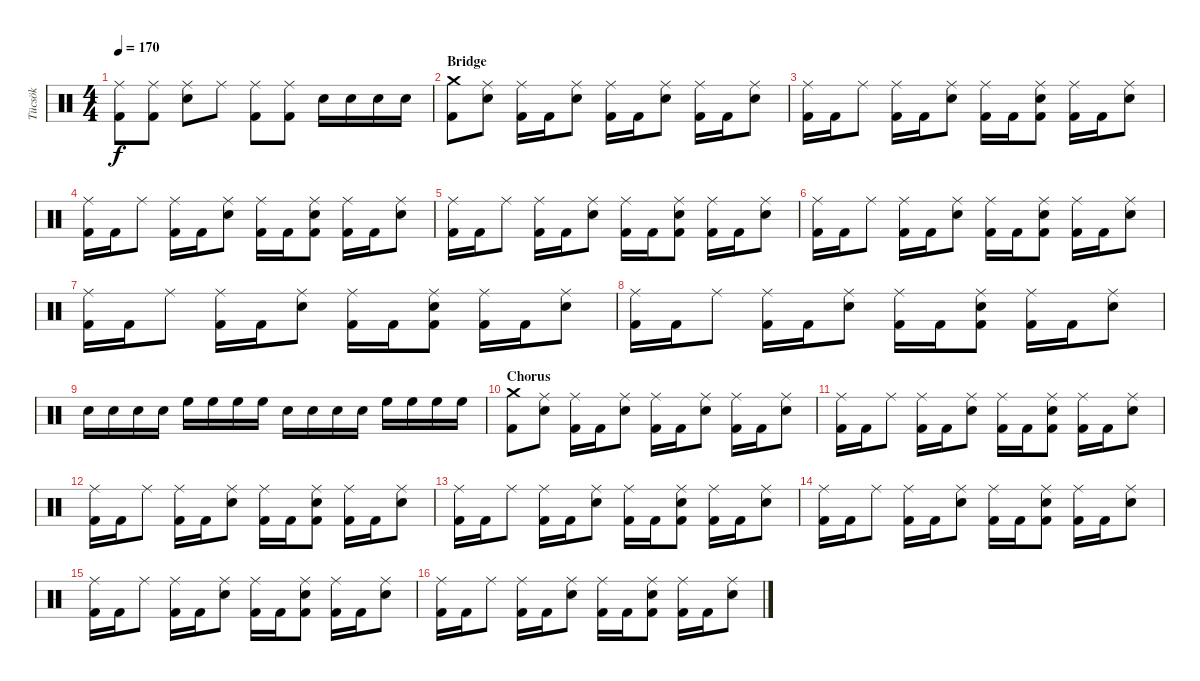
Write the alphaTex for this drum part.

\track ("Tücsök" "Tücsök") {instrument percussion}
\staff {score}
\articulation defaults
\ts (4 4)
\tempo 170
\clef neutral
\ks c
("Ride (middle)" "Kick (hit) 2").8{dy f} ("Ride (middle)" "Kick (hit) 2").8 ("Ride (middle)" "Electric Snare (hit)").8 "Ride (middle)".8 ("Ride (middle)" "Kick (hit) 2").8 ("Ride (middle)" "Kick (hit) 2").8 "Electric Snare (hit)".16 "Electric Snare (hit)".16 "Electric Snare (hit)".16 "Electric Snare (hit)".16 |
\section ("" "Bridge")
("Crash medium (hit)" "Kick (hit) 2").8 ("Ride (middle)" "Electric Snare (hit)").8 ("Ride (middle)" "Kick (hit) 2").16 "Kick (hit) 2".16 ("Ride (middle)" "Electric Snare (hit)").8 ("Ride (middle)" "Kick (hit) 2").16 "Kick (hit) 2".16 ("Ride (middle)" "Electric Snare (hit)").8 ("Ride (middle)" "Kick (hit) 2").16 "Kick (hit) 2".16 ("Ride (middle)" "Electric Snare (hit)").8 |
("Ride (middle)" "Kick (hit) 2").16 "Kick (hit) 2".16 "Ride (middle)".8 ("Ride (middle)" "Kick (hit) 2").16 "Kick (hit) 2".16 ("Ride (middle)" "Electric Snare (hit)").8 ("Ride (middle)" "Kick (hit) 2").16 "Kick (hit) 2".16 ("Ride (middle)" "Electric Snare (hit)" "Kick (hit) 2").8 ("Ride (middle)" "Kick (hit) 2").16 "Kick (hit) 2".16 ("Ride (middle)" "Electric Snare (hit)").8 |
("Ride (middle)" "Kick (hit) 2").16 "Kick (hit) 2".16 "Ride (middle)".8 ("Ride (middle)" "Kick (hit) 2").16 "Kick (hit) 2".16 ("Ride (middle)" "Electric Snare (hit)").8 ("Ride (middle)" "Kick (hit) 2").16 "Kick (hit) 2".16 ("Ride (middle)" "Electric Snare (hit)" "Kick (hit) 2").8 ("Ride (middle)" "Kick (hit) 2").16 "Kick (hit) 2".16 ("Ride (middle)" "Electric Snare (hit)").8 |
("Ride (middle)" "Kick (hit) 2").16 "Kick (hit) 2".16 "Ride (middle)".8 ("Ride (middle)" "Kick (hit) 2").16 "Kick (hit) 2".16 ("Ride (middle)" "Electric Snare (hit)").8 ("Ride (middle)" "Kick (hit) 2").16 "Kick (hit) 2".16 ("Ride (middle)" "Electric Snare (hit)" "Kick (hit) 2").8 ("Ride (middle)" "Kick (hit) 2").16 "Kick (hit) 2".16 ("Ride (middle)" "Electric Snare (hit)").8 |
("Ride (middle)" "Kick (hit) 2").16 "Kick (hit) 2".16 "Ride (middle)".8 ("Ride (middle)" "Kick (hit) 2").16 "Kick (hit) 2".16 ("Ride (middle)" "Electric Snare (hit)").8 ("Ride (middle)" "Kick (hit) 2").16 "Kick (hit) 2".16 ("Ride (middle)" "Electric Snare (hit)" "Kick (hit) 2").8 ("Ride (middle)" "Kick (hit) 2").16 "Kick (hit) 2".16 ("Ride (middle)" "Electric Snare (hit)").8 |
("Ride (middle)" "Kick (hit) 2").16 "Kick (hit) 2".16 "Ride (middle)".8 ("Ride (middle)" "Kick (hit) 2").16 "Kick (hit) 2".16 ("Ride (middle)" "Electric Snare (hit)").8 ("Ride (middle)" "Kick (hit) 2").16 "Kick (hit) 2".16 ("Ride (middle)" "Electric Snare (hit)" "Kick (hit) 2").8 ("Ride (middle)" "Kick (hit) 2").16 "Kick (hit) 2".16 ("Ride (middle)" "Electric Snare (hit)").8 |
("Ride (middle)" "Kick (hit) 2").16 "Kick (hit) 2".16 "Ride (middle)".8 ("Ride (middle)" "Kick (hit) 2").16 "Kick (hit) 2".16 ("Ride (middle)" "Electric Snare (hit)").8 ("Ride (middle)" "Kick (hit) 2").16 "Kick (hit) 2".16 ("Ride (middle)" "Electric Snare (hit)" "Kick (hit) 2").8 ("Ride (middle)" "Kick (hit) 2").16 "Kick (hit) 2".16 ("Ride (middle)" "Electric Snare (hit)").8 |
"Electric Snare (hit)".16 "Electric Snare (hit)".16 "Electric Snare (hit)".16 "Electric Snare (hit)".16 "High Floor Tom (hit)".16 "High Floor Tom (hit)".16 "High Floor Tom (hit)".16 "High Floor Tom (hit)".16 "Electric Snare (hit)".16 "Electric Snare (hit)".16 "Electric Snare (hit)".16 "Electric Snare (hit)".16 "High Floor Tom (hit)".16 "High Floor Tom (hit)".16 "High Floor Tom (hit)".16 "High Floor Tom (hit)".16 |
\section ("" "Chorus")
("Crash medium (hit)" "Kick (hit) 2").8 ("Ride (middle)" "Electric Snare (hit)").8 ("Ride (middle)" "Kick (hit) 2").16 "Kick (hit) 2".16 ("Ride (middle)" "Electric Snare (hit)").8 ("Ride (middle)" "Kick (hit) 2").16 "Kick (hit) 2".16 ("Ride (middle)" "Electric Snare (hit)").8 ("Ride (middle)" "Kick (hit) 2").16 "Kick (hit) 2".16 ("Ride (middle)" "Electric Snare (hit)").8 |
("Ride (middle)" "Kick (hit) 2").16 "Kick (hit) 2".16 "Ride (middle)".8 ("Ride (middle)" "Kick (hit) 2").16 "Kick (hit) 2".16 ("Ride (middle)" "Electric Snare (hit)").8 ("Ride (middle)" "Kick (hit) 2").16 "Kick (hit) 2".16 ("Ride (middle)" "Electric Snare (hit)" "Kick (hit) 2").8 ("Ride (middle)" "Kick (hit) 2").16 "Kick (hit) 2".16 ("Ride (middle)" "Electric Snare (hit)").8 |
("Ride (middle)" "Kick (hit) 2").16 "Kick (hit) 2".16 "Ride (middle)".8 ("Ride (middle)" "Kick (hit) 2").16 "Kick (hit) 2".16 ("Ride (middle)" "Electric Snare (hit)").8 ("Ride (middle)" "Kick (hit) 2").16 "Kick (hit) 2".16 ("Ride (middle)" "Electric Snare (hit)" "Kick (hit) 2").8 ("Ride (middle)" "Kick (hit) 2").16 "Kick (hit) 2".16 ("Ride (middle)" "Electric Snare (hit)").8 |
("Ride (middle)" "Kick (hit) 2").16 "Kick (hit) 2".16 "Ride (middle)".8 ("Ride (middle)" "Kick (hit) 2").16 "Kick (hit) 2".16 ("Ride (middle)" "Electric Snare (hit)").8 ("Ride (middle)" "Kick (hit) 2").16 "Kick (hit) 2".16 ("Ride (middle)" "Electric Snare (hit)" "Kick (hit) 2").8 ("Ride (middle)" "Kick (hit) 2").16 "Kick (hit) 2".16 ("Ride (middle)" "Electric Snare (hit)").8 |
("Ride (middle)" "Kick (hit) 2").16 "Kick (hit) 2".16 "Ride (middle)".8 ("Ride (middle)" "Kick (hit) 2").16 "Kick (hit) 2".16 ("Ride (middle)" "Electric Snare (hit)").8 ("Ride (middle)" "Kick (hit) 2").16 "Kick (hit) 2".16 ("Ride (middle)" "Electric Snare (hit)" "Kick (hit) 2").8 ("Ride (middle)" "Kick (hit) 2").16 "Kick (hit) 2".16 ("Ride (middle)" "Electric Snare (hit)").8 |
("Ride (middle)" "Kick (hit) 2").16 "Kick (hit) 2".16 "Ride (middle)".8 ("Ride (middle)" "Kick (hit) 2").16 "Kick (hit) 2".16 ("Ride (middle)" "Electric Snare (hit)").8 ("Ride (middle)" "Kick (hit) 2").16 "Kick (hit) 2".16 ("Ride (middle)" "Electric Snare (hit)" "Kick (hit) 2").8 ("Ride (middle)" "Kick (hit) 2").16 "Kick (hit) 2".16 ("Ride (middle)" "Electric Snare (hit)").8 |
("Ride (middle)" "Kick (hit) 2").16 "Kick (hit) 2".16 "Ride (middle)".8 ("Ride (middle)" "Kick (hit) 2").16 "Kick (hit) 2".16 ("Ride (middle)" "Electric Snare (hit)").8 ("Ride (middle)" "Kick (hit) 2").16 "Kick (hit) 2".16 ("Ride (middle)" "Electric Snare (hit)" "Kick (hit) 2").8 ("Ride (middle)" "Kick (hit) 2").16 "Kick (hit) 2".16 ("Ride (middle)" "Electric Snare (hit)").8
